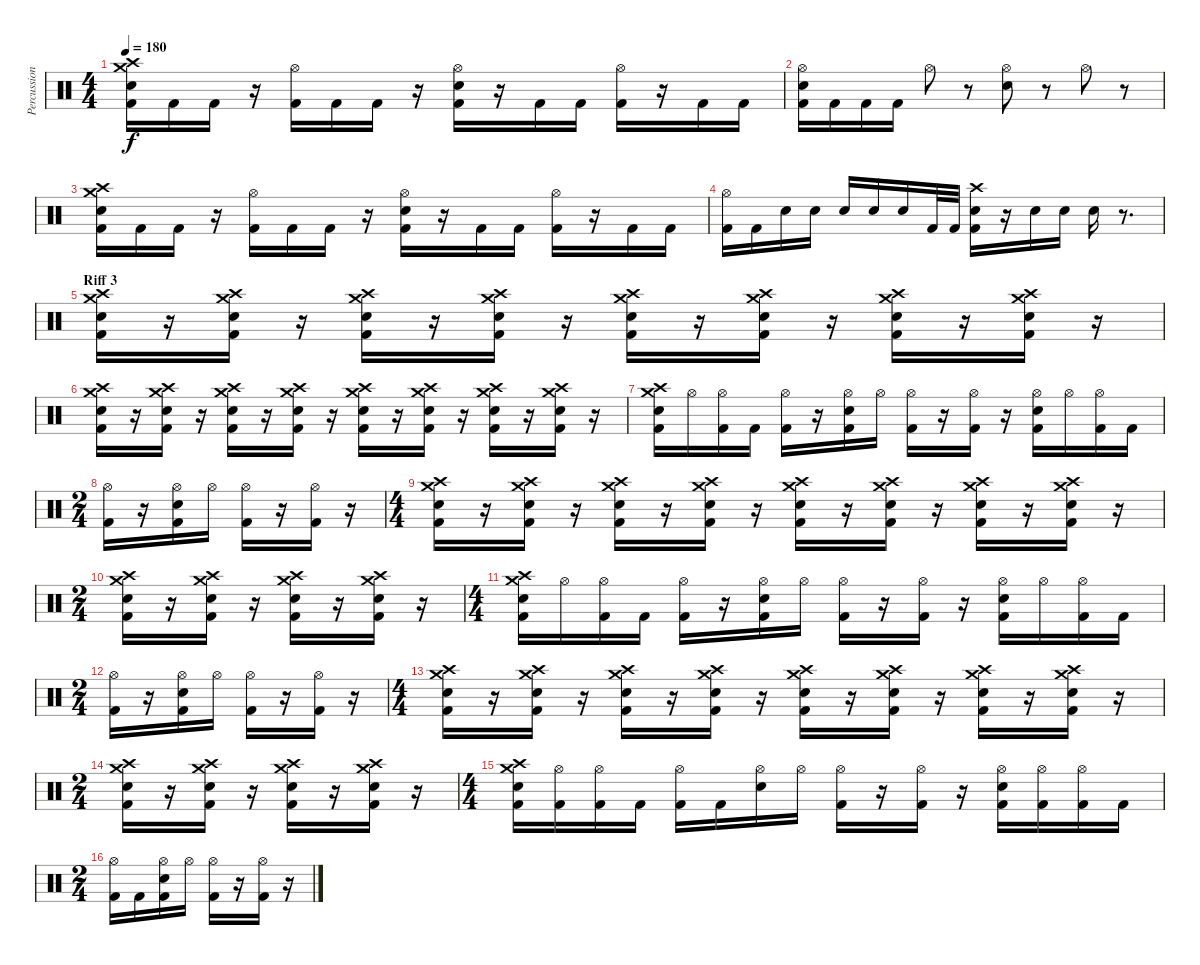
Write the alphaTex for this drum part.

\track ("Percussion" "Percussion") {instrument percussion}
\staff {score}
\articulation defaults
\ts (4 4)
\tempo 180
\clef neutral
\ks c
("Crash medium (hit)" "Crash high (hit)" "Electric Snare (hit)" "Kick (hit) 2").16{dy f} "Kick (hit) 2".16 "Kick (hit) 2".16 r.16 ("Hi-Hat (open)" "Kick (hit) 2").16 "Kick (hit) 2".16 "Kick (hit) 2".16 r.16 ("Hi-Hat (open)" "Electric Snare (hit)" "Kick (hit) 2").16 r.16 "Kick (hit) 2".16 "Kick (hit) 2".16 ("Hi-Hat (open)" "Kick (hit) 2").16 r.16 "Kick (hit) 2".16 "Kick (hit) 2".16 |
("Hi-Hat (open)" "Electric Snare (hit)" "Kick (hit) 2").16 "Kick (hit) 2".16 "Kick (hit) 2".16 "Kick (hit) 2".16 "Hi-Hat (open)".8 r.8 ("Hi-Hat (open)" "Electric Snare (hit)").8 r.8 "Hi-Hat (open)".8 r.8 |
("Crash medium (hit)" "Crash high (hit)" "Electric Snare (hit)" "Kick (hit) 2").16 "Kick (hit) 2".16 "Kick (hit) 2".16 r.16 ("Hi-Hat (open)" "Kick (hit) 2").16 "Kick (hit) 2".16 "Kick (hit) 2".16 r.16 ("Hi-Hat (open)" "Electric Snare (hit)" "Kick (hit) 2").16 r.16 "Kick (hit) 2".16 "Kick (hit) 2".16 ("Hi-Hat (open)" "Kick (hit) 2").16 r.16 "Kick (hit) 2".16 "Kick (hit) 2".16 |
("Hi-Hat (open)" "Kick (hit) 2").16 "Kick (hit) 2".16 "Electric Snare (hit)".16 "Electric Snare (hit)".16 "Electric Snare (hit)".16 "Electric Snare (hit)".16 "Electric Snare (hit)".16 "Kick (hit) 2".32 "Kick (hit) 2".32 ("Crash high (hit)" "Electric Snare (hit)" "Kick (hit) 2").16 r.16 "Electric Snare (hit)".16 "Electric Snare (hit)".16 "Electric Snare (hit)".16 r.8{d} |
\section ("" "Riff 3")
("Crash medium (hit)" "Crash high (hit)" "Electric Snare (hit)" "Kick (hit) 2").16 r.16 ("Crash medium (hit)" "Crash high (hit)" "Electric Snare (hit)" "Kick (hit) 2").16 r.16 ("Crash medium (hit)" "Crash high (hit)" "Electric Snare (hit)" "Kick (hit) 2").16 r.16 ("Crash medium (hit)" "Crash high (hit)" "Electric Snare (hit)" "Kick (hit) 2").16 r.16 ("Crash medium (hit)" "Crash high (hit)" "Electric Snare (hit)" "Kick (hit) 2").16 r.16 ("Crash medium (hit)" "Crash high (hit)" "Electric Snare (hit)" "Kick (hit) 2").16 r.16 ("Crash medium (hit)" "Crash high (hit)" "Electric Snare (hit)" "Kick (hit) 2").16 r.16 ("Crash medium (hit)" "Crash high (hit)" "Electric Snare (hit)" "Kick (hit) 2").16 r.16 |
("Crash medium (hit)" "Crash high (hit)" "Electric Snare (hit)" "Kick (hit) 2").16 r.16 ("Crash medium (hit)" "Crash high (hit)" "Electric Snare (hit)" "Kick (hit) 2").16 r.16 ("Crash medium (hit)" "Crash high (hit)" "Electric Snare (hit)" "Kick (hit) 2").16 r.16 ("Crash medium (hit)" "Crash high (hit)" "Electric Snare (hit)" "Kick (hit) 2").16 r.16 ("Crash medium (hit)" "Crash high (hit)" "Electric Snare (hit)" "Kick (hit) 2").16 r.16 ("Crash medium (hit)" "Crash high (hit)" "Electric Snare (hit)" "Kick (hit) 2").16 r.16 ("Crash medium (hit)" "Crash high (hit)" "Electric Snare (hit)" "Kick (hit) 2").16 r.16 ("Crash medium (hit)" "Crash high (hit)" "Electric Snare (hit)" "Kick (hit) 2").16 r.16 |
("Crash medium (hit)" "Crash high (hit)" "Electric Snare (hit)" "Kick (hit) 2").16 "Hi-Hat (open)".16 ("Hi-Hat (open)" "Kick (hit) 2").16 "Kick (hit) 2".16 ("Hi-Hat (open)" "Kick (hit) 2").16 r.16 ("Hi-Hat (open)" "Electric Snare (hit)" "Kick (hit) 2").16 "Hi-Hat (open)".16 ("Hi-Hat (open)" "Kick (hit) 2").16 r.16 ("Hi-Hat (open)" "Kick (hit) 2").16 r.16 ("Hi-Hat (open)" "Electric Snare (hit)" "Kick (hit) 2").16 "Hi-Hat (open)".16 ("Hi-Hat (open)" "Kick (hit) 2").16 "Kick (hit) 2".16 |
\ts (2 4)
("Hi-Hat (open)" "Kick (hit) 2").16 r.16 ("Hi-Hat (open)" "Electric Snare (hit)" "Kick (hit) 2").16 "Hi-Hat (open)".16 ("Hi-Hat (open)" "Kick (hit) 2").16 r.16 ("Hi-Hat (open)" "Kick (hit) 2").16 r.16 |
\ts (4 4)
("Crash medium (hit)" "Crash high (hit)" "Electric Snare (hit)" "Kick (hit) 2").16 r.16 ("Crash medium (hit)" "Crash high (hit)" "Electric Snare (hit)" "Kick (hit) 2").16 r.16 ("Crash medium (hit)" "Crash high (hit)" "Electric Snare (hit)" "Kick (hit) 2").16 r.16 ("Crash medium (hit)" "Crash high (hit)" "Electric Snare (hit)" "Kick (hit) 2").16 r.16 ("Crash medium (hit)" "Crash high (hit)" "Electric Snare (hit)" "Kick (hit) 2").16 r.16 ("Crash medium (hit)" "Crash high (hit)" "Electric Snare (hit)" "Kick (hit) 2").16 r.16 ("Crash medium (hit)" "Crash high (hit)" "Electric Snare (hit)" "Kick (hit) 2").16 r.16 ("Crash medium (hit)" "Crash high (hit)" "Electric Snare (hit)" "Kick (hit) 2").16 r.16 |
\ts (2 4)
("Crash medium (hit)" "Crash high (hit)" "Electric Snare (hit)" "Kick (hit) 2").16 r.16 ("Crash medium (hit)" "Crash high (hit)" "Electric Snare (hit)" "Kick (hit) 2").16 r.16 ("Crash medium (hit)" "Crash high (hit)" "Electric Snare (hit)" "Kick (hit) 2").16 r.16 ("Crash medium (hit)" "Crash high (hit)" "Electric Snare (hit)" "Kick (hit) 2").16 r.16 |
\ts (4 4)
("Crash medium (hit)" "Crash high (hit)" "Electric Snare (hit)" "Kick (hit) 2").16 "Hi-Hat (open)".16 ("Hi-Hat (open)" "Kick (hit) 2").16 "Kick (hit) 2".16 ("Hi-Hat (open)" "Kick (hit) 2").16 r.16 ("Hi-Hat (open)" "Electric Snare (hit)" "Kick (hit) 2").16 "Hi-Hat (open)".16 ("Hi-Hat (open)" "Kick (hit) 2").16 r.16 ("Hi-Hat (open)" "Kick (hit) 2").16 r.16 ("Hi-Hat (open)" "Electric Snare (hit)" "Kick (hit) 2").16 "Hi-Hat (open)".16 ("Hi-Hat (open)" "Kick (hit) 2").16 "Kick (hit) 2".16 |
\ts (2 4)
("Hi-Hat (open)" "Kick (hit) 2").16 r.16 ("Hi-Hat (open)" "Electric Snare (hit)" "Kick (hit) 2").16 "Hi-Hat (open)".16 ("Hi-Hat (open)" "Kick (hit) 2").16 r.16 ("Hi-Hat (open)" "Kick (hit) 2").16 r.16 |
\ts (4 4)
("Crash medium (hit)" "Crash high (hit)" "Electric Snare (hit)" "Kick (hit) 2").16 r.16 ("Crash medium (hit)" "Crash high (hit)" "Electric Snare (hit)" "Kick (hit) 2").16 r.16 ("Crash medium (hit)" "Crash high (hit)" "Electric Snare (hit)" "Kick (hit) 2").16 r.16 ("Crash medium (hit)" "Crash high (hit)" "Electric Snare (hit)" "Kick (hit) 2").16 r.16 ("Crash medium (hit)" "Crash high (hit)" "Electric Snare (hit)" "Kick (hit) 2").16 r.16 ("Crash medium (hit)" "Crash high (hit)" "Electric Snare (hit)" "Kick (hit) 2").16 r.16 ("Crash medium (hit)" "Crash high (hit)" "Electric Snare (hit)" "Kick (hit) 2").16 r.16 ("Crash medium (hit)" "Crash high (hit)" "Electric Snare (hit)" "Kick (hit) 2").16 r.16 |
\ts (2 4)
("Crash medium (hit)" "Crash high (hit)" "Electric Snare (hit)" "Kick (hit) 2").16 r.16 ("Crash medium (hit)" "Crash high (hit)" "Electric Snare (hit)" "Kick (hit) 2").16 r.16 ("Crash medium (hit)" "Crash high (hit)" "Electric Snare (hit)" "Kick (hit) 2").16 r.16 ("Crash medium (hit)" "Crash high (hit)" "Electric Snare (hit)" "Kick (hit) 2").16 r.16 |
\ts (4 4)
("Crash medium (hit)" "Crash high (hit)" "Electric Snare (hit)" "Kick (hit) 2").16 ("Hi-Hat (open)" "Kick (hit) 2").16 ("Hi-Hat (open)" "Kick (hit) 2").16 "Kick (hit) 2".16 ("Hi-Hat (open)" "Kick (hit) 2").16 "Kick (hit) 2".16 ("Hi-Hat (open)" "Electric Snare (hit)").16 "Hi-Hat (open)".16 ("Hi-Hat (open)" "Kick (hit) 2").16 r.16 ("Hi-Hat (open)" "Kick (hit) 2").16 r.16 ("Hi-Hat (open)" "Electric Snare (hit)" "Kick (hit) 2").16 ("Hi-Hat (open)" "Kick (hit) 2").16 ("Hi-Hat (open)" "Kick (hit) 2").16 "Kick (hit) 2".16 |
\ts (2 4)
("Hi-Hat (open)" "Kick (hit) 2").16 "Kick (hit) 2".16 ("Hi-Hat (open)" "Electric Snare (hit)" "Kick (hit) 2").16 "Hi-Hat (open)".16 ("Hi-Hat (open)" "Kick (hit) 2").16 r.16 ("Hi-Hat (open)" "Kick (hit) 2").16 r.16
